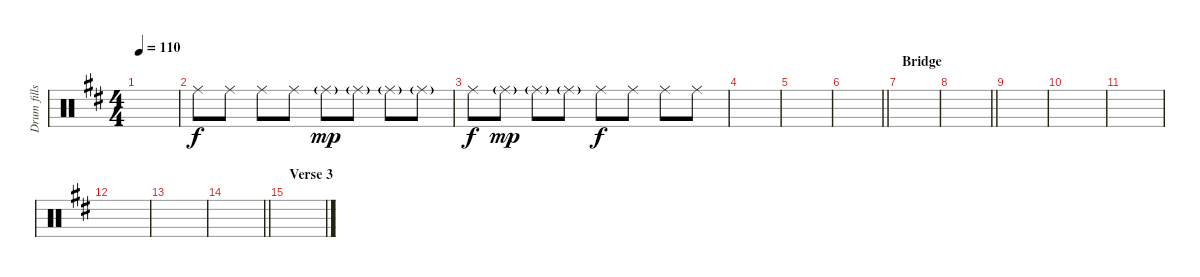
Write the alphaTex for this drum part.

\track ("Drum fills" "Drum fills") {instrument percussion}
\staff {score}
\articulation defaults
\ts (4 4)
\tempo 110
\clef neutral
\ks d
|
"Ride (middle)".8 "Ride (middle)".8 "Ride (middle)".8 "Ride (middle)".8 "Ride (middle)"{g}.8{dy mp} "Ride (middle)"{g}.8 "Ride (middle)"{g}.8 "Ride (middle)"{g}.8 |
"Ride (middle)".8{dy f} "Ride (middle)"{g}.8{dy mp} "Ride (middle)"{g}.8 "Ride (middle)"{g}.8 "Ride (middle)".8{dy f} "Ride (middle)".8 "Ride (middle)".8 "Ride (middle)".8 |
|
|
\barLineRight lightlight
|
\section ("" "Bridge")
|
\barLineRight lightlight
|
|
|
|
|
|
\barLineRight lightlight
|
\section ("" "Verse 3")
